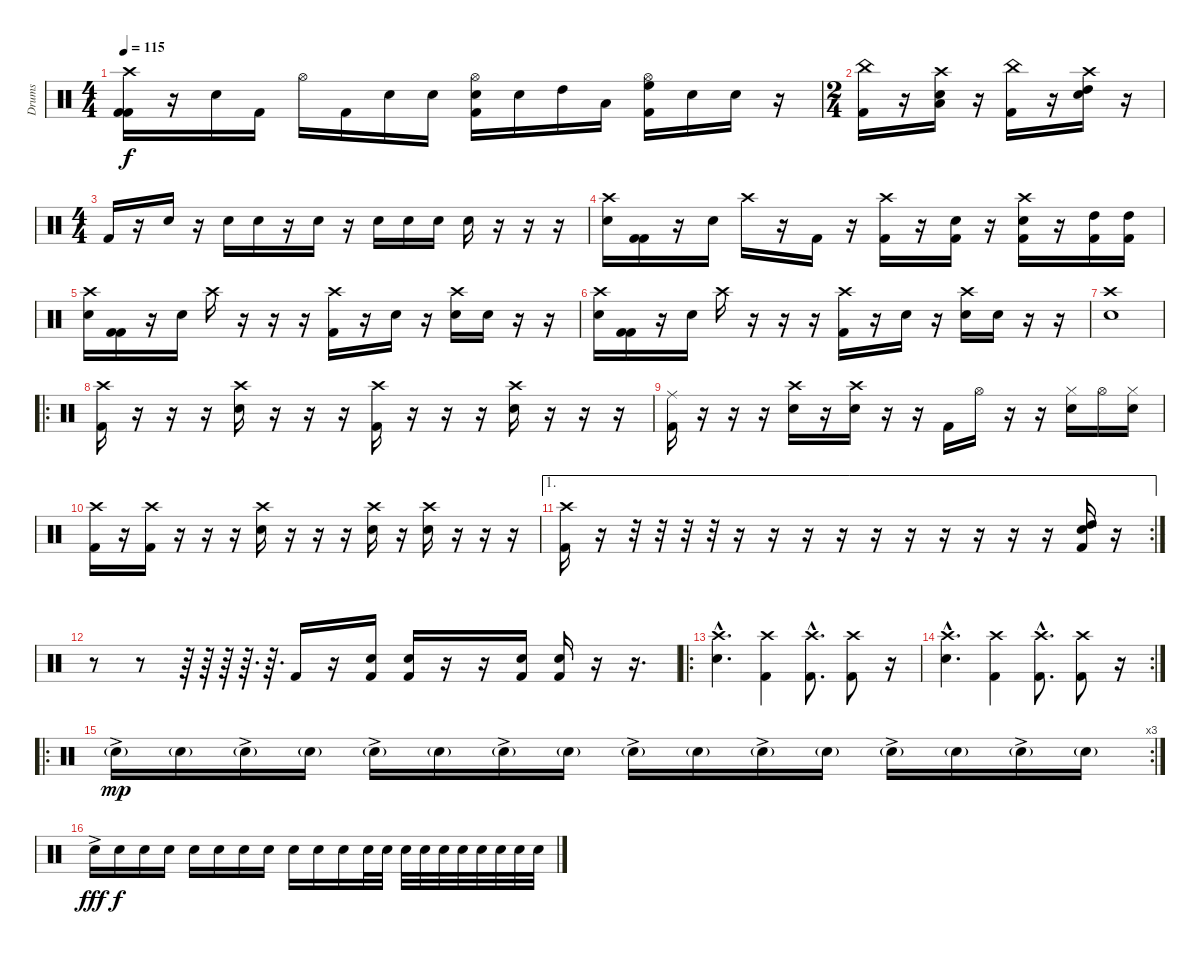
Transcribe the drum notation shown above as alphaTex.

\track ("Drums" "Drums") {instrument percussion}
\staff {score}
\articulation defaults
\ts (4 4)
\tempo 115
\clef neutral
\ks c
("Crash high (hit)" "Kick (hit) 2" "Kick (hit) 2").16{dy f} r.16 "Electric Snare (hit)".16 "Kick (hit) 2".16 "Hi-Hat (open)".16 "Kick (hit) 2".16 "Electric Snare (hit)".16 "Electric Snare (hit)".16 ("Hi-Hat (open)" "Electric Snare (hit)" "Kick (hit) 2").16 "Electric Snare (hit)".16 "High Tom (hit)".16 "Low Tom (hit)".16 ("Hi-Hat (open)" "High Floor Tom (hit)" "Kick (hit) 2").16 "Electric Snare (hit)".16 "Electric Snare (hit)".16 r.16 |
\ts (2 4)
("China (hit)" "Kick (hit) 2").16 r.16 ("Crash high (hit)" "Electric Snare (hit)" "Low Tom (hit)").16 r.16 ("China (hit)" "Kick (hit) 2").16 r.16 ("Crash high (hit)" "Electric Snare (hit)" "High Tom (hit)").16 r.16 |
\ts (4 4)
"Kick (hit) 2".16 r.16 "Electric Snare (hit)".16 r.16 "Electric Snare (hit)".16 "Electric Snare (hit)".16 r.16 "Electric Snare (hit)".16 r.16 "Electric Snare (hit)".16 "Electric Snare (hit)".16 "Electric Snare (hit)".16 "Electric Snare (hit)".16 r.16 r.16 r.16 |
("Crash high (hit)" "Electric Snare (hit)").16 ("Kick (hit) 2" "Kick (hit) 2").16 r.16 "Electric Snare (hit)".16 "Crash high (hit)".16 r.16 "Kick (hit) 2".16 r.16 ("Crash high (hit)" "Kick (hit) 2").16 r.16 ("Electric Snare (hit)" "Kick (hit) 2").16 r.16 ("Crash high (hit)" "Electric Snare (hit)" "Kick (hit) 2").16 r.16 ("High Tom (hit)" "Kick (hit) 2").16 ("High Tom (hit)" "Kick (hit) 2").16 |
("Crash high (hit)" "Electric Snare (hit)").16 ("Kick (hit) 2" "Kick (hit) 2").16 r.16 "Electric Snare (hit)".16 "Crash high (hit)".16 r.16 r.16 r.16 ("Crash high (hit)" "Kick (hit) 2").16 r.16 "Electric Snare (hit)".16 r.16 ("Crash high (hit)" "Electric Snare (hit)").16 "Electric Snare (hit)".16 r.16 r.16 |
("Crash high (hit)" "Electric Snare (hit)").16 ("Kick (hit) 2" "Kick (hit) 2").16 r.16 "Electric Snare (hit)".16 "Crash high (hit)".16 r.16 r.16 r.16 ("Crash high (hit)" "Kick (hit) 2").16 r.16 "Electric Snare (hit)".16 r.16 ("Crash high (hit)" "Electric Snare (hit)").16 "Electric Snare (hit)".16 r.16 r.16 |
("Crash high (hit)" "Electric Snare (hit)").1 |
\ro
("Crash high (hit)" "Kick (hit) 2").16 r.16 r.16 r.16 ("Crash high (hit)" "Electric Snare (hit)").16 r.16 r.16 r.16 ("Crash high (hit)" "Kick (hit) 2").16 r.16 r.16 r.16 ("Crash high (hit)" "Electric Snare (hit)").16 r.16 r.16 r.16 |
("Ride (middle)" "Kick (hit) 2").16 r.16 r.16 r.16 ("Crash high (hit)" "Electric Snare (hit)").16 r.16 ("Crash high (hit)" "Electric Snare (hit)").16 r.16 r.16 "Kick (hit) 2".16 "Hi-Hat (open)".16 r.16 r.16 ("Hi-Hat (closed)" "Electric Snare (hit)").16 "Hi-Hat (open)".16 ("Hi-Hat (closed)" "Electric Snare (hit)").16 |
("Crash high (hit)" "Kick (hit) 2").16 r.16 ("Crash high (hit)" "Kick (hit) 2").16 r.16 r.16 r.16 ("Crash high (hit)" "Electric Snare (hit)").16 r.16 r.16 r.16 ("Crash high (hit)" "Electric Snare (hit)").16 r.16 ("Crash high (hit)" "Electric Snare (hit)").16 r.16 r.16 r.16 |
\ae 1
\rc 2
("Crash high (hit)" "Kick (hit) 2").16 r.16 r.32 r.32 r.32 r.32 r.16 r.16 r.16 r.16 r.16 r.16 r.16 r.16 r.16 r.16 ("High Tom (hit)" "Electric Snare (hit)" "Kick (hit) 2").16 r.16 |
r.8 r.8 r.64 r.64 r.64 r.64{d} r.64{d} "Kick (hit) 2".16 r.16 ("Electric Snare (hit)" "Kick (hit) 2").16 ("Electric Snare (hit)" "Kick (hit) 2").16 r.16 r.16 ("Electric Snare (hit)" "Kick (hit) 2").16 ("Electric Snare (hit)" "Kick (hit) 2").16 r.16 r.16{d} |
\ro
("Crash high (hit)"{hac} "Electric Snare (hit)"{hac}).4{d} ("Crash high (hit)" "Kick (hit) 2").4 ("Crash high (hit)"{hac} "Kick (hit) 2"{hac}).8{d} ("Crash high (hit)" "Kick (hit) 2").8 r.16 |
\rc 2
("Crash high (hit)"{hac} "Electric Snare (hit)"{hac}).4{d} ("Crash high (hit)" "Kick (hit) 2").4 ("Crash high (hit)"{hac} "Kick (hit) 2"{hac}).8{d} ("Crash high (hit)" "Kick (hit) 2").8 r.16 |
\ro
\rc 3 "Electric Snare (hit)"{g ac}.16{dy mp} "Electric Snare (hit)"{g}.16 "Electric Snare (hit)"{g ac}.16 "Electric Snare (hit)"{g}.16 "Electric Snare (hit)"{g ac}.16 "Electric Snare (hit)"{g}.16 "Electric Snare (hit)"{g ac}.16 "Electric Snare (hit)"{g}.16 "Electric Snare (hit)"{g ac}.16 "Electric Snare (hit)"{g}.16 "Electric Snare (hit)"{g ac}.16 "Electric Snare (hit)"{g}.16 "Electric Snare (hit)"{g ac}.16 "Electric Snare (hit)"{g}.16 "Electric Snare (hit)"{g ac}.16 "Electric Snare (hit)"{g}.16
|
"Electric Snare (hit)"{ac}.16{dy fff} "Electric Snare (hit)".16{dy f} "Electric Snare (hit)".16 "Electric Snare (hit)".16 "Electric Snare (hit)".16 "Electric Snare (hit)".16 "Electric Snare (hit)".16 "Electric Snare (hit)".16 "Electric Snare (hit)".16 "Electric Snare (hit)".16 "Electric Snare (hit)".16 "Electric Snare (hit)".32 "Electric Snare (hit)".32 "Electric Snare (hit)".32 "Electric Snare (hit)".32 "Electric Snare (hit)".32 "Electric Snare (hit)".32 "Electric Snare (hit)".32 "Electric Snare (hit)".32 "Electric Snare (hit)".32 "Electric Snare (hit)".32
